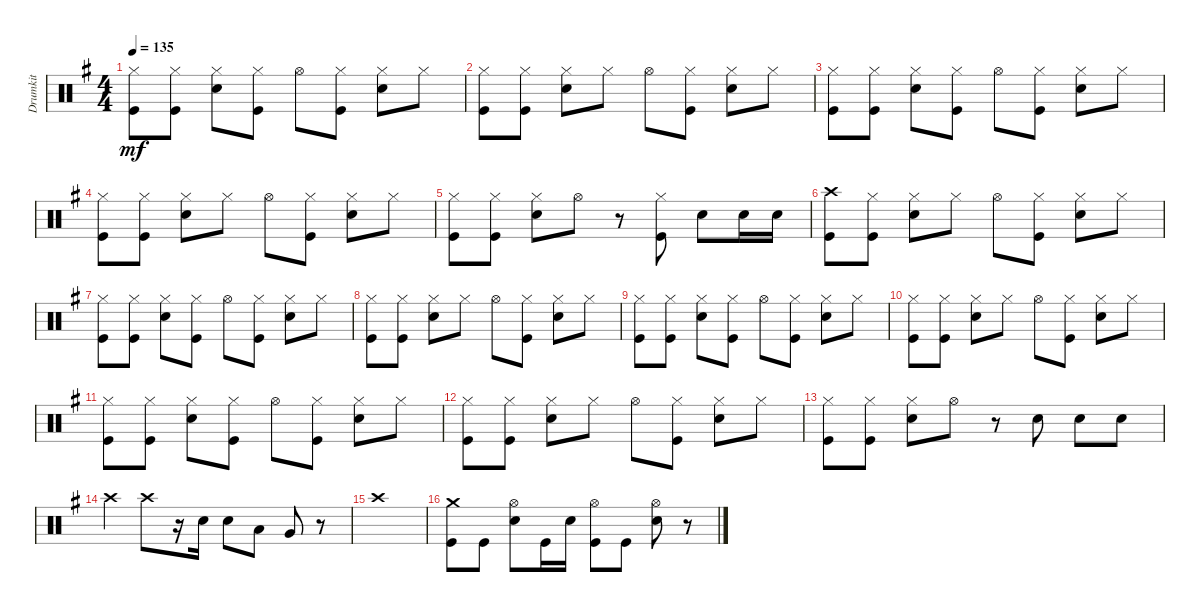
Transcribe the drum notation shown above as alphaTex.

\track ("Drumkit" "Drumkit") {instrument percussion}
\staff {score}
\articulation defaults
\ts (4 4)
\tempo 135
\clef neutral
\ks g
("Hi-Hat (closed)" "Kick (hit)").8{dy mf} ("Hi-Hat (closed)" "Kick (hit)").8 ("Hi-Hat (closed)" "Snare (hit) 2").8 ("Hi-Hat (closed)" "Kick (hit)").8 "Hi-Hat (open)".8 ("Hi-Hat (closed)" "Kick (hit)").8 ("Hi-Hat (closed)" "Snare (hit) 2").8 "Hi-Hat (closed)".8 |
("Hi-Hat (closed)" "Kick (hit)").8 ("Hi-Hat (closed)" "Kick (hit)").8 ("Hi-Hat (closed)" "Snare (hit) 2").8 "Hi-Hat (closed)".8 "Hi-Hat (open)".8 ("Hi-Hat (closed)" "Kick (hit)").8 ("Hi-Hat (closed)" "Snare (hit) 2").8 "Hi-Hat (closed)".8 |
("Hi-Hat (closed)" "Kick (hit)").8 ("Hi-Hat (closed)" "Kick (hit)").8 ("Hi-Hat (closed)" "Snare (hit) 2").8 ("Hi-Hat (closed)" "Kick (hit)").8 "Hi-Hat (open)".8 ("Hi-Hat (closed)" "Kick (hit)").8 ("Hi-Hat (closed)" "Snare (hit) 2").8 "Hi-Hat (closed)".8 |
("Hi-Hat (closed)" "Kick (hit)").8 ("Hi-Hat (closed)" "Kick (hit)").8 ("Hi-Hat (closed)" "Snare (hit) 2").8 "Hi-Hat (closed)".8 "Hi-Hat (open)".8 ("Hi-Hat (closed)" "Kick (hit)").8 ("Hi-Hat (closed)" "Snare (hit) 2").8 "Hi-Hat (closed)".8 |
("Hi-Hat (closed)" "Kick (hit)").8 ("Hi-Hat (closed)" "Kick (hit)").8 ("Hi-Hat (closed)" "Snare (hit) 2").8 "Hi-Hat (open)".8 r.8 ("Hi-Hat (closed)" "Kick (hit)").8 "Snare (hit) 2".8 "Snare (hit) 2".16 "Snare (hit) 2".16 |
("Kick (hit)" "Crash high (hit)").8 ("Hi-Hat (closed)" "Kick (hit)").8 ("Hi-Hat (closed)" "Snare (hit) 2").8 "Hi-Hat (closed)".8 "Hi-Hat (open)".8 ("Hi-Hat (closed)" "Kick (hit)").8 ("Hi-Hat (closed)" "Snare (hit) 2").8 "Hi-Hat (closed)".8 |
("Hi-Hat (closed)" "Kick (hit)").8 ("Hi-Hat (closed)" "Kick (hit)").8 ("Hi-Hat (closed)" "Snare (hit) 2").8 ("Hi-Hat (closed)" "Kick (hit)").8 "Hi-Hat (open)".8 ("Hi-Hat (closed)" "Kick (hit)").8 ("Hi-Hat (closed)" "Snare (hit) 2").8 "Hi-Hat (closed)".8 |
("Hi-Hat (closed)" "Kick (hit)").8 ("Hi-Hat (closed)" "Kick (hit)").8 ("Hi-Hat (closed)" "Snare (hit) 2").8 "Hi-Hat (closed)".8 "Hi-Hat (open)".8 ("Hi-Hat (closed)" "Kick (hit)").8 ("Hi-Hat (closed)" "Snare (hit) 2").8 "Hi-Hat (closed)".8 |
("Hi-Hat (closed)" "Kick (hit)").8 ("Hi-Hat (closed)" "Kick (hit)").8 ("Hi-Hat (closed)" "Snare (hit) 2").8 ("Hi-Hat (closed)" "Kick (hit)").8 "Hi-Hat (open)".8 ("Hi-Hat (closed)" "Kick (hit)").8 ("Hi-Hat (closed)" "Snare (hit) 2").8 "Hi-Hat (closed)".8 |
("Hi-Hat (closed)" "Kick (hit)").8 ("Hi-Hat (closed)" "Kick (hit)").8 ("Hi-Hat (closed)" "Snare (hit) 2").8 "Hi-Hat (closed)".8 "Hi-Hat (open)".8 ("Hi-Hat (closed)" "Kick (hit)").8 ("Hi-Hat (closed)" "Snare (hit) 2").8 "Hi-Hat (closed)".8 |
("Hi-Hat (closed)" "Kick (hit)").8 ("Hi-Hat (closed)" "Kick (hit)").8 ("Hi-Hat (closed)" "Snare (hit) 2").8 ("Hi-Hat (closed)" "Kick (hit)").8 "Hi-Hat (open)".8 ("Hi-Hat (closed)" "Kick (hit)").8 ("Hi-Hat (closed)" "Snare (hit) 2").8 "Hi-Hat (closed)".8 |
("Hi-Hat (closed)" "Kick (hit)").8 ("Hi-Hat (closed)" "Kick (hit)").8 ("Hi-Hat (closed)" "Snare (hit) 2").8 "Hi-Hat (closed)".8 "Hi-Hat (open)".8 ("Hi-Hat (closed)" "Kick (hit)").8 ("Hi-Hat (closed)" "Snare (hit) 2").8 "Hi-Hat (closed)".8 |
("Hi-Hat (closed)" "Kick (hit)").8 ("Hi-Hat (closed)" "Kick (hit)").8 ("Hi-Hat (closed)" "Snare (hit) 2").8 "Hi-Hat (open)".8 r.8 "Snare (hit) 2".8 "Snare (hit) 2".8 "Snare (hit) 2".8 |
"Crash high (hit)".4 "Crash high (hit)".8 r.16 "Snare (hit) 2".16 "Snare (hit) 2".8 "Low Tom (hit)".8 "Very Low Tom (hit)".8 r.8 |
"Crash high (hit)".1 |
("Crash medium (hit)" "Kick (hit)").8 "Kick (hit)".8 ("Hi-Hat (open)" "Snare (hit) 2").8 "Kick (hit)".16 "Snare (hit) 2".16 ("Hi-Hat (open)" "Kick (hit)").8 "Kick (hit)".8 ("Hi-Hat (open)" "Snare (hit) 2").8 r.8
